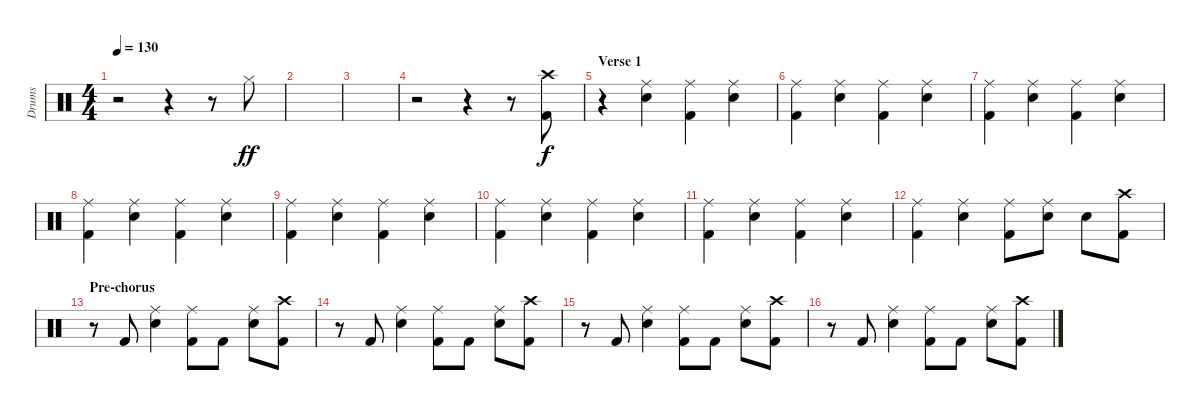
\track ("Drums" "Drums") {instrument percussion}
\staff {score}
\articulation defaults
\ts (4 4)
\tempo 130
\clef neutral
\ks c
r.2{dy ff} r.4 r.8 "Hi-Hat (closed)".8 |
|
|
r.2 r.4 r.8 ("Crash high (hit)" "Kick (hit) 2").8{dy f} |
\section ("" "Verse 1")
r.4 ("Ride (middle)" "Electric Snare (hit)").4 ("Ride (middle)" "Kick (hit) 2").4 ("Ride (middle)" "Electric Snare (hit)").4 |
("Ride (middle)" "Kick (hit) 2").4 ("Ride (middle)" "Electric Snare (hit)").4 ("Ride (middle)" "Kick (hit) 2").4 ("Ride (middle)" "Electric Snare (hit)").4 |
("Ride (middle)" "Kick (hit) 2").4 ("Ride (middle)" "Electric Snare (hit)").4 ("Ride (middle)" "Kick (hit) 2").4 ("Ride (middle)" "Electric Snare (hit)").4 |
("Ride (middle)" "Kick (hit) 2").4 ("Ride (middle)" "Electric Snare (hit)").4 ("Ride (middle)" "Kick (hit) 2").4 ("Ride (middle)" "Electric Snare (hit)").4 |
("Ride (middle)" "Kick (hit) 2").4 ("Ride (middle)" "Electric Snare (hit)").4 ("Ride (middle)" "Kick (hit) 2").4 ("Ride (middle)" "Electric Snare (hit)").4 |
("Ride (middle)" "Kick (hit) 2").4 ("Ride (middle)" "Electric Snare (hit)").4 ("Ride (middle)" "Kick (hit) 2").4 ("Ride (middle)" "Electric Snare (hit)").4 |
("Ride (middle)" "Kick (hit) 2").4 ("Ride (middle)" "Electric Snare (hit)").4 ("Ride (middle)" "Kick (hit) 2").4 ("Ride (middle)" "Electric Snare (hit)").4 |
("Ride (middle)" "Kick (hit) 2").4 ("Ride (middle)" "Electric Snare (hit)").4 ("Ride (middle)" "Kick (hit) 2").8 ("Ride (middle)" "Electric Snare (hit)").8 "Electric Snare (hit)".8 ("Crash high (hit)" "Kick (hit) 2").8 |
\section ("" "Pre-chorus")
r.8 "Kick (hit) 2".8 ("Ride (middle)" "Electric Snare (hit)").4 ("Ride (middle)" "Kick (hit) 2").8 "Kick (hit) 2".8 ("Ride (middle)" "Electric Snare (hit)").8 ("Crash high (hit)" "Kick (hit) 2").8 |
r.8 "Kick (hit) 2".8 ("Ride (middle)" "Electric Snare (hit)").4 ("Ride (middle)" "Kick (hit) 2").8 "Kick (hit) 2".8 ("Ride (middle)" "Electric Snare (hit)").8 ("Crash high (hit)" "Kick (hit) 2").8 |
r.8 "Kick (hit) 2".8 ("Ride (middle)" "Electric Snare (hit)").4 ("Ride (middle)" "Kick (hit) 2").8 "Kick (hit) 2".8 ("Ride (middle)" "Electric Snare (hit)").8 ("Crash high (hit)" "Kick (hit) 2").8 |
r.8 "Kick (hit) 2".8 ("Ride (middle)" "Electric Snare (hit)").4 ("Ride (middle)" "Kick (hit) 2").8 "Kick (hit) 2".8 ("Ride (middle)" "Electric Snare (hit)").8 ("Crash high (hit)" "Kick (hit) 2").8
